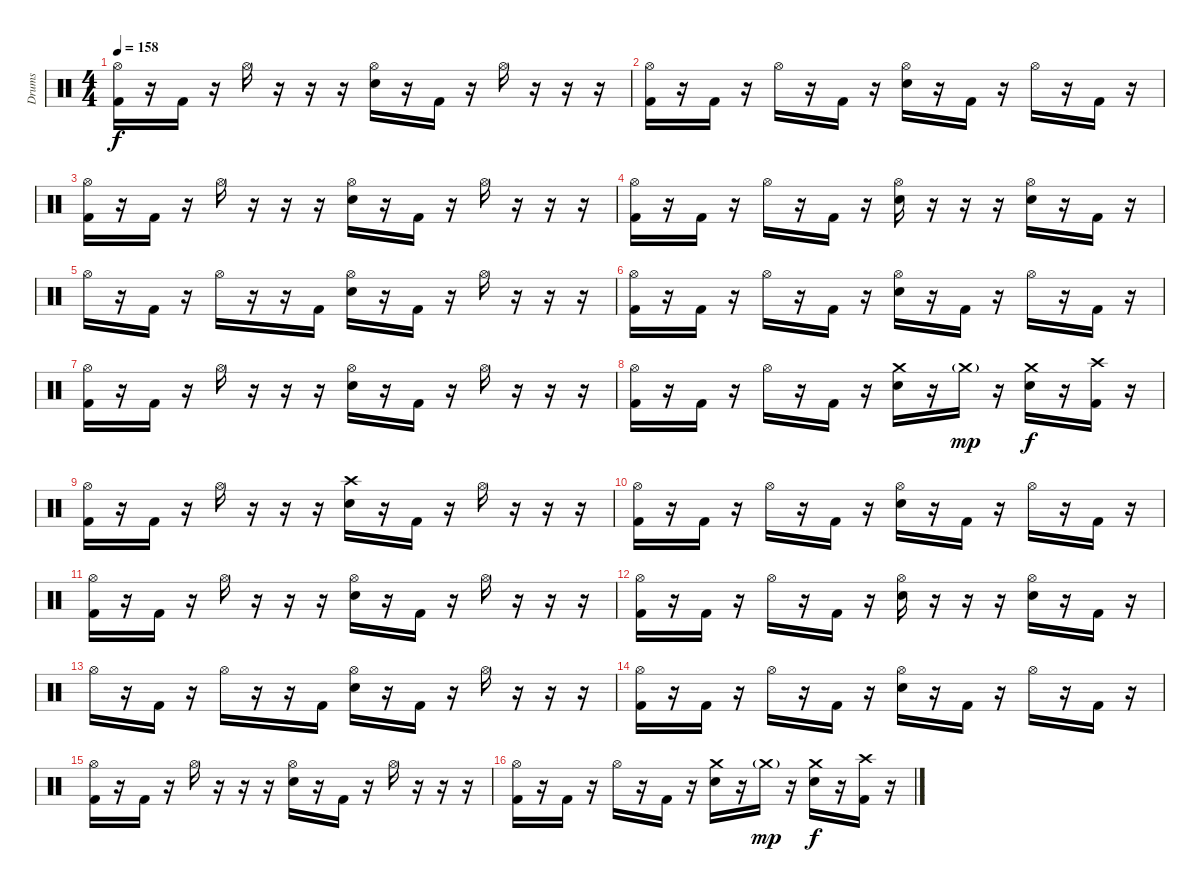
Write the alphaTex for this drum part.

\track ("Drums" "Drums") {instrument percussion}
\staff {score}
\articulation defaults
\ts (4 4)
\tempo 158
\clef neutral
\ks c
("Hi-Hat (open)" "Kick (hit) 2").16{dy f} r.16 "Kick (hit) 2".16 r.16 "Hi-Hat (open)".16 r.16 r.16 r.16 ("Hi-Hat (open)" "Snare (hit) 2").16 r.16 "Kick (hit) 2".16 r.16 "Hi-Hat (open)".16 r.16 r.16 r.16 |
("Hi-Hat (open)" "Kick (hit) 2").16 r.16 "Kick (hit) 2".16 r.16 "Hi-Hat (open)".16 r.16 "Kick (hit) 2".16 r.16 ("Hi-Hat (open)" "Snare (hit) 2").16 r.16 "Kick (hit) 2".16 r.16 "Hi-Hat (open)".16 r.16 "Kick (hit) 2".16 r.16 |
("Hi-Hat (open)" "Kick (hit) 2").16 r.16 "Kick (hit) 2".16 r.16 "Hi-Hat (open)".16 r.16 r.16 r.16 ("Hi-Hat (open)" "Snare (hit) 2").16 r.16 "Kick (hit) 2".16 r.16 "Hi-Hat (open)".16 r.16 r.16 r.16 |
("Hi-Hat (open)" "Kick (hit) 2").16 r.16 "Kick (hit) 2".16 r.16 "Hi-Hat (open)".16 r.16 "Kick (hit) 2".16 r.16 ("Hi-Hat (open)" "Snare (hit) 2").16 r.16 r.16 r.16 ("Hi-Hat (open)" "Snare (hit) 2").16 r.16 "Kick (hit) 2".16 r.16 |
"Hi-Hat (open)".16 r.16 "Kick (hit) 2".16 r.16 "Hi-Hat (open)".16 r.16 r.16 "Kick (hit) 2".16 ("Hi-Hat (open)" "Snare (hit) 2").16 r.16 "Kick (hit) 2".16 r.16 "Hi-Hat (open)".16 r.16 r.16 r.16 |
("Hi-Hat (open)" "Kick (hit) 2").16 r.16 "Kick (hit) 2".16 r.16 "Hi-Hat (open)".16 r.16 "Kick (hit) 2".16 r.16 ("Hi-Hat (open)" "Snare (hit) 2").16 r.16 "Kick (hit) 2".16 r.16 "Hi-Hat (open)".16 r.16 "Kick (hit) 2".16 r.16 |
("Hi-Hat (open)" "Kick (hit) 2").16 r.16 "Kick (hit) 2".16 r.16 "Hi-Hat (open)".16 r.16 r.16 r.16 ("Hi-Hat (open)" "Snare (hit) 2").16 r.16 "Kick (hit) 2".16 r.16 "Hi-Hat (open)".16 r.16 r.16 r.16 |
("Hi-Hat (open)" "Kick (hit) 2").16 r.16 "Kick (hit) 2".16 r.16 "Hi-Hat (open)".16 r.16 "Kick (hit) 2".16 r.16 ("Crash medium (hit)" "Snare (hit) 2").16 r.16 "Crash medium (hit)"{g}.16{dy mp} r.16 ("Crash medium (hit)" "Snare (hit) 2").16{dy f} r.16 ("Crash high (hit)" "Kick (hit) 2").16 r.16 |
("Hi-Hat (open)" "Kick (hit) 2").16 r.16 "Kick (hit) 2".16 r.16 "Hi-Hat (open)".16 r.16 r.16 r.16 ("Crash high (hit)" "Snare (hit) 2").16 r.16 "Kick (hit) 2".16 r.16 "Hi-Hat (open)".16 r.16 r.16 r.16 |
("Hi-Hat (open)" "Kick (hit) 2").16 r.16 "Kick (hit) 2".16 r.16 "Hi-Hat (open)".16 r.16 "Kick (hit) 2".16 r.16 ("Hi-Hat (open)" "Snare (hit) 2").16 r.16 "Kick (hit) 2".16 r.16 "Hi-Hat (open)".16 r.16 "Kick (hit) 2".16 r.16 |
("Hi-Hat (open)" "Kick (hit) 2").16 r.16 "Kick (hit) 2".16 r.16 "Hi-Hat (open)".16 r.16 r.16 r.16 ("Hi-Hat (open)" "Snare (hit) 2").16 r.16 "Kick (hit) 2".16 r.16 "Hi-Hat (open)".16 r.16 r.16 r.16 |
("Hi-Hat (open)" "Kick (hit) 2").16 r.16 "Kick (hit) 2".16 r.16 "Hi-Hat (open)".16 r.16 "Kick (hit) 2".16 r.16 ("Hi-Hat (open)" "Snare (hit) 2").16 r.16 r.16 r.16 ("Hi-Hat (open)" "Snare (hit) 2").16 r.16 "Kick (hit) 2".16 r.16 |
"Hi-Hat (open)".16 r.16 "Kick (hit) 2".16 r.16 "Hi-Hat (open)".16 r.16 r.16 "Kick (hit) 2".16 ("Hi-Hat (open)" "Snare (hit) 2").16 r.16 "Kick (hit) 2".16 r.16 "Hi-Hat (open)".16 r.16 r.16 r.16 |
("Hi-Hat (open)" "Kick (hit) 2").16 r.16 "Kick (hit) 2".16 r.16 "Hi-Hat (open)".16 r.16 "Kick (hit) 2".16 r.16 ("Hi-Hat (open)" "Snare (hit) 2").16 r.16 "Kick (hit) 2".16 r.16 "Hi-Hat (open)".16 r.16 "Kick (hit) 2".16 r.16 |
("Hi-Hat (open)" "Kick (hit) 2").16 r.16 "Kick (hit) 2".16 r.16 "Hi-Hat (open)".16 r.16 r.16 r.16 ("Hi-Hat (open)" "Snare (hit) 2").16 r.16 "Kick (hit) 2".16 r.16 "Hi-Hat (open)".16 r.16 r.16 r.16 |
("Hi-Hat (open)" "Kick (hit) 2").16 r.16 "Kick (hit) 2".16 r.16 "Hi-Hat (open)".16 r.16 "Kick (hit) 2".16 r.16 ("Crash medium (hit)" "Snare (hit) 2").16 r.16 "Crash medium (hit)"{g}.16{dy mp} r.16 ("Crash medium (hit)" "Snare (hit) 2").16{dy f} r.16 ("Crash high (hit)" "Kick (hit) 2").16 r.16
